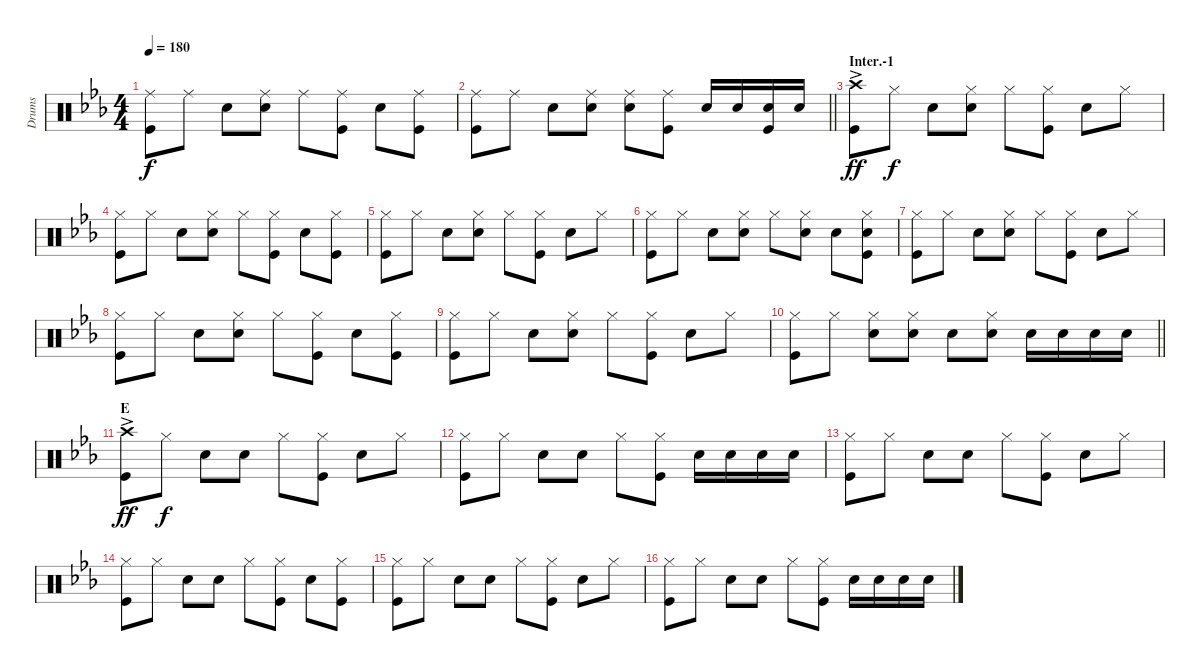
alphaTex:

\track ("Drums" "Drums") {instrument percussion}
\staff {score}
\articulation defaults
\ts (4 4)
\tempo 180
\clef neutral
\ks cminor
("Ride (middle)" "Kick (hit)").8{dy f} "Ride (middle)".8 "Snare (hit) 2".8 ("Ride (middle)" "Snare (hit) 2").8 "Ride (middle)".8 ("Ride (middle)" "Kick (hit)").8 "Snare (hit) 2".8 ("Ride (middle)" "Kick (hit)").8 |
\barLineRight lightlight
("Ride (middle)" "Kick (hit)").8 "Ride (middle)".8 "Snare (hit) 2".8 ("Snare (hit) 2" "Ride (middle)").8 ("Ride (middle)" "Snare (hit) 2").8 ("Ride (middle)" "Kick (hit)").8 "Snare (hit) 2".16 "Snare (hit) 2".16 ("Snare (hit) 2" "Kick (hit)").16 "Snare (hit) 2".16 |
\section ("" "Inter.-1")
("Crash high (hit)"{ac} "Kick (hit)").8{dy ff} "Hi-Hat (closed)".8{dy f} "Snare (hit) 2".8 ("Snare (hit) 2" "Hi-Hat (closed)").8 "Hi-Hat (closed)".8 ("Hi-Hat (closed)" "Kick (hit)").8 "Snare (hit) 2".8 "Hi-Hat (closed)".8 |
("Hi-Hat (closed)" "Kick (hit)").8 "Hi-Hat (closed)".8 "Snare (hit) 2".8 ("Snare (hit) 2" "Hi-Hat (closed)").8 "Hi-Hat (closed)".8 ("Hi-Hat (closed)" "Kick (hit)").8 "Snare (hit) 2".8 ("Kick (hit)" "Hi-Hat (closed)").8 |
("Hi-Hat (closed)" "Kick (hit)").8 "Hi-Hat (closed)".8 "Snare (hit) 2".8 ("Snare (hit) 2" "Hi-Hat (closed)").8 "Hi-Hat (closed)".8 ("Hi-Hat (closed)" "Kick (hit)").8 "Snare (hit) 2".8 "Hi-Hat (closed)".8 |
("Hi-Hat (closed)" "Kick (hit)").8 "Hi-Hat (closed)".8 "Snare (hit) 2".8 ("Snare (hit) 2" "Hi-Hat (closed)").8 "Hi-Hat (closed)".8 ("Hi-Hat (closed)" "Snare (hit) 2").8 "Snare (hit) 2".8 ("Snare (hit) 2" "Hi-Hat (closed)" "Kick (hit)").8 |
("Kick (hit)" "Hi-Hat (closed)").8 "Hi-Hat (closed)".8 "Snare (hit) 2".8 ("Hi-Hat (closed)" "Snare (hit) 2").8 "Hi-Hat (closed)".8 ("Hi-Hat (closed)" "Kick (hit)").8 "Snare (hit) 2".8 "Hi-Hat (closed)".8 |
("Hi-Hat (closed)" "Kick (hit)").8 "Hi-Hat (closed)".8 "Snare (hit) 2".8 ("Snare (hit) 2" "Hi-Hat (closed)").8 "Hi-Hat (closed)".8 ("Hi-Hat (closed)" "Kick (hit)").8 "Snare (hit) 2".8 ("Hi-Hat (closed)" "Kick (hit)").8 |
("Hi-Hat (closed)" "Kick (hit)").8 "Hi-Hat (closed)".8 "Snare (hit) 2".8 ("Snare (hit) 2" "Hi-Hat (closed)").8 "Hi-Hat (closed)".8 ("Hi-Hat (closed)" "Kick (hit)").8 "Snare (hit) 2".8 "Hi-Hat (closed)".8 |
\barLineRight lightlight
("Hi-Hat (closed)" "Kick (hit)").8 "Hi-Hat (closed)".8 ("Hi-Hat (closed)" "Snare (hit) 2").8 ("Snare (hit) 2" "Hi-Hat (closed)").8 "Snare (hit) 2".8 ("Snare (hit) 2" "Hi-Hat (closed)").8 "Snare (hit) 2".16 "Snare (hit) 2".16 "Snare (hit) 2".16 "Snare (hit) 2".16 |
\section ("" "E")
("Crash high (hit)"{ac} "Kick (hit)").8{dy ff} "Hi-Hat (closed)".8{dy f} "Snare (hit) 2".8 "Snare (hit) 2".8 "Hi-Hat (closed)".8 ("Hi-Hat (closed)" "Kick (hit)").8 "Snare (hit) 2".8 "Hi-Hat (closed)".8 |
("Hi-Hat (closed)" "Kick (hit)").8 "Hi-Hat (closed)".8 "Snare (hit) 2".8 "Snare (hit) 2".8 "Hi-Hat (closed)".8 ("Hi-Hat (closed)" "Kick (hit)").8 "Snare (hit) 2".16 "Snare (hit) 2".16 "Snare (hit) 2".16 "Snare (hit) 2".16 |
("Kick (hit)" "Hi-Hat (closed)").8 "Hi-Hat (closed)".8 "Snare (hit) 2".8 "Snare (hit) 2".8 "Hi-Hat (closed)".8 ("Hi-Hat (closed)" "Kick (hit)").8 "Snare (hit) 2".8 "Hi-Hat (closed)".8 |
("Hi-Hat (closed)" "Kick (hit)").8 "Hi-Hat (closed)".8 "Snare (hit) 2".8 "Snare (hit) 2".8 "Hi-Hat (closed)".8 ("Hi-Hat (closed)" "Kick (hit)").8 "Snare (hit) 2".8 ("Hi-Hat (closed)" "Kick (hit)").8 |
("Kick (hit)" "Hi-Hat (closed)").8 "Hi-Hat (closed)".8 "Snare (hit) 2".8 "Snare (hit) 2".8 "Hi-Hat (closed)".8 ("Hi-Hat (closed)" "Kick (hit)").8 "Snare (hit) 2".8 "Hi-Hat (closed)".8 |
("Hi-Hat (closed)" "Kick (hit)").8 "Hi-Hat (closed)".8 "Snare (hit) 2".8 "Snare (hit) 2".8 "Hi-Hat (closed)".8 ("Hi-Hat (closed)" "Kick (hit)").8 "Snare (hit) 2".16 "Snare (hit) 2".16 "Snare (hit) 2".16 "Snare (hit) 2".16
